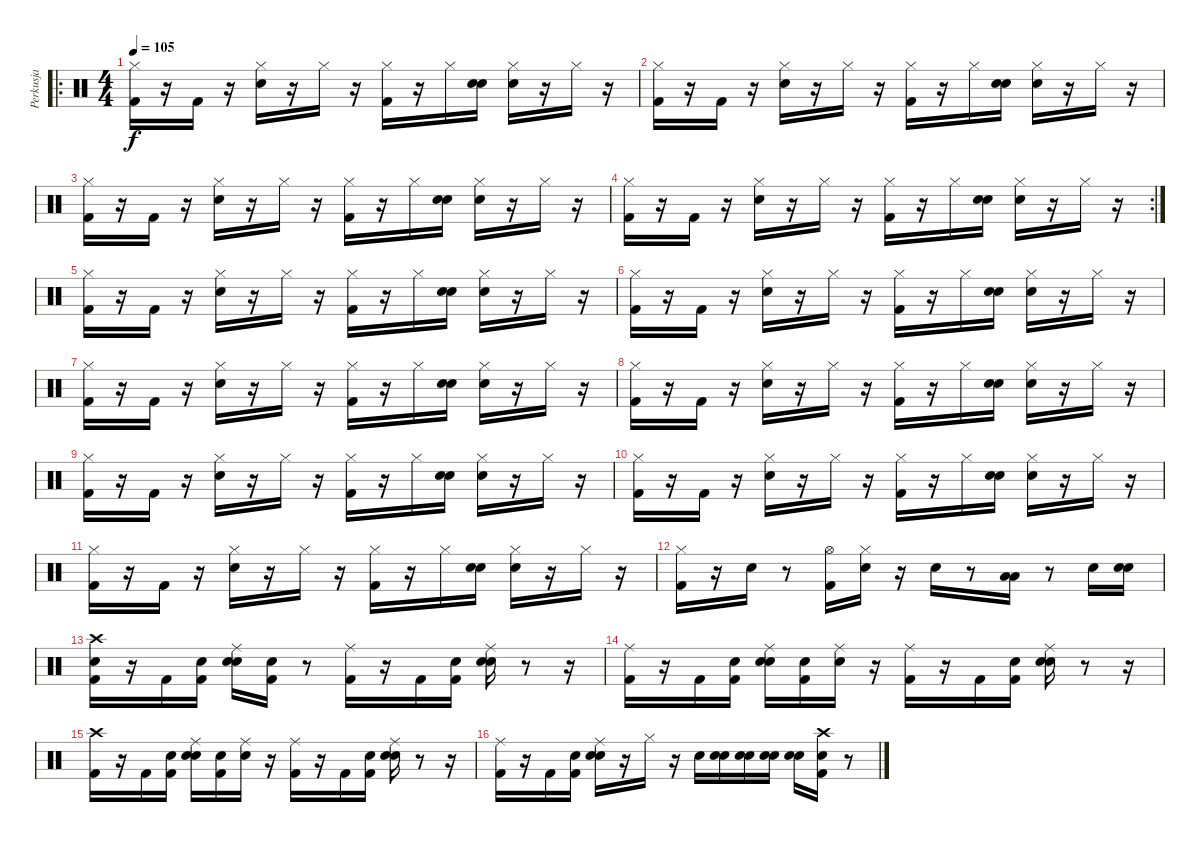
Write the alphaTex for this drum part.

\track ("Perkusja" "Perkusja") {instrument percussion}
\staff {score}
\articulation defaults
\ro
\ts (4 4)
\tempo 105
\clef neutral
\ks c
("Kick (hit) 2" "Hi-Hat (closed)").16{dy f} r.16 "Kick (hit) 2".16 r.16 ("Snare (hit) 2" "Hi-Hat (closed)").16 r.16 "Hi-Hat (closed)".16 r.16 ("Kick (hit) 2" "Hi-Hat (closed)").16 r.16 "Hi-Hat (closed)".16 ("Snare (hit)" "Snare (hit) 2").16 ("Snare (hit)" "Hi-Hat (closed)").16 r.16 "Hi-Hat (closed)".16 r.16 |
("Kick (hit) 2" "Hi-Hat (closed)").16 r.16 "Kick (hit) 2".16 r.16 ("Snare (hit) 2" "Hi-Hat (closed)").16 r.16 "Hi-Hat (closed)".16 r.16 ("Kick (hit) 2" "Hi-Hat (closed)").16 r.16 "Hi-Hat (closed)".16 ("Snare (hit)" "Snare (hit) 2").16 ("Snare (hit)" "Hi-Hat (closed)").16 r.16 "Hi-Hat (closed)".16 r.16 |
("Kick (hit) 2" "Hi-Hat (closed)").16 r.16 "Kick (hit) 2".16 r.16 ("Snare (hit) 2" "Hi-Hat (closed)").16 r.16 "Hi-Hat (closed)".16 r.16 ("Kick (hit) 2" "Hi-Hat (closed)").16 r.16 "Hi-Hat (closed)".16 ("Snare (hit)" "Snare (hit) 2").16 ("Snare (hit)" "Hi-Hat (closed)").16 r.16 "Hi-Hat (closed)".16 r.16 |
\rc 2
("Kick (hit) 2" "Hi-Hat (closed)").16 r.16 "Kick (hit) 2".16 r.16 ("Snare (hit) 2" "Hi-Hat (closed)").16 r.16 "Hi-Hat (closed)".16 r.16 ("Kick (hit) 2" "Hi-Hat (closed)").16 r.16 "Hi-Hat (closed)".16 ("Snare (hit)" "Snare (hit) 2").16 ("Snare (hit)" "Hi-Hat (closed)").16 r.16 "Hi-Hat (closed)".16 r.16 |
("Kick (hit) 2" "Hi-Hat (closed)").16 r.16 "Kick (hit) 2".16 r.16 ("Snare (hit) 2" "Hi-Hat (closed)").16 r.16 "Hi-Hat (closed)".16 r.16 ("Kick (hit) 2" "Hi-Hat (closed)").16 r.16 "Hi-Hat (closed)".16 ("Snare (hit)" "Snare (hit) 2").16 ("Snare (hit)" "Hi-Hat (closed)").16 r.16 "Hi-Hat (closed)".16 r.16 |
("Kick (hit) 2" "Hi-Hat (closed)").16 r.16 "Kick (hit) 2".16 r.16 ("Snare (hit) 2" "Hi-Hat (closed)").16 r.16 "Hi-Hat (closed)".16 r.16 ("Kick (hit) 2" "Hi-Hat (closed)").16 r.16 "Hi-Hat (closed)".16 ("Snare (hit)" "Snare (hit) 2").16 ("Snare (hit)" "Hi-Hat (closed)").16 r.16 "Hi-Hat (closed)".16 r.16 |
("Kick (hit) 2" "Hi-Hat (closed)").16 r.16 "Kick (hit) 2".16 r.16 ("Snare (hit) 2" "Hi-Hat (closed)").16 r.16 "Hi-Hat (closed)".16 r.16 ("Kick (hit) 2" "Hi-Hat (closed)").16 r.16 "Hi-Hat (closed)".16 ("Snare (hit)" "Snare (hit) 2").16 ("Snare (hit)" "Hi-Hat (closed)").16 r.16 "Hi-Hat (closed)".16 r.16 |
("Kick (hit) 2" "Hi-Hat (closed)").16 r.16 "Kick (hit) 2".16 r.16 ("Snare (hit) 2" "Hi-Hat (closed)").16 r.16 "Hi-Hat (closed)".16 r.16 ("Kick (hit) 2" "Hi-Hat (closed)").16 r.16 "Hi-Hat (closed)".16 ("Snare (hit)" "Snare (hit) 2").16 ("Snare (hit)" "Hi-Hat (closed)").16 r.16 "Hi-Hat (closed)".16 r.16 |
("Kick (hit) 2" "Hi-Hat (closed)").16 r.16 "Kick (hit) 2".16 r.16 ("Snare (hit) 2" "Hi-Hat (closed)").16 r.16 "Hi-Hat (closed)".16 r.16 ("Kick (hit) 2" "Hi-Hat (closed)").16 r.16 "Hi-Hat (closed)".16 ("Snare (hit)" "Snare (hit) 2").16 ("Snare (hit)" "Hi-Hat (closed)").16 r.16 "Hi-Hat (closed)".16 r.16 |
("Kick (hit) 2" "Hi-Hat (closed)").16 r.16 "Kick (hit) 2".16 r.16 ("Snare (hit) 2" "Hi-Hat (closed)").16 r.16 "Hi-Hat (closed)".16 r.16 ("Kick (hit) 2" "Hi-Hat (closed)").16 r.16 "Hi-Hat (closed)".16 ("Snare (hit)" "Snare (hit) 2").16 ("Snare (hit)" "Hi-Hat (closed)").16 r.16 "Hi-Hat (closed)".16 r.16 |
("Kick (hit) 2" "Hi-Hat (closed)").16 r.16 "Kick (hit) 2".16 r.16 ("Snare (hit) 2" "Hi-Hat (closed)").16 r.16 "Hi-Hat (closed)".16 r.16 ("Kick (hit) 2" "Hi-Hat (closed)").16 r.16 "Hi-Hat (closed)".16 ("Snare (hit)" "Snare (hit) 2").16 ("Snare (hit)" "Hi-Hat (closed)").16 r.16 "Hi-Hat (closed)".16 r.16 |
("Kick (hit) 2" "Hi-Hat (closed)").16 r.16 "Snare (hit) 2".16 r.8 ("Kick (hit) 2" "Hi-Hat (open)").16 ("Snare (hit)" "Hi-Hat (closed)").16 r.16 "Snare (hit) 2".16 r.8 ("Low Floor Tom (hit)" "Low Tom (hit)").16 r.8 "Snare (hit) 2".16 ("Snare (hit)" "Snare (hit) 2").16 |
("Snare (hit)" "Kick (hit) 2" "Crash high (hit)").16 r.16 "Kick (hit) 2".16 ("Snare (hit)" "Kick (hit) 2").16 ("Snare (hit)" "Snare (hit) 2" "Ride (middle)").16 ("Snare (hit)" "Kick (hit) 2").16 r.8 ("Kick (hit) 2" "Ride (middle)").16 r.16 "Kick (hit) 2".16 ("Snare (hit)" "Kick (hit) 2").16 ("Snare (hit)" "Snare (hit) 2" "Ride (middle)").16 r.8 r.16 |
("Kick (hit) 2" "Ride (middle)").16 r.16 "Kick (hit) 2".16 ("Snare (hit)" "Kick (hit) 2").16 ("Snare (hit)" "Snare (hit) 2" "Ride (middle)").16 ("Snare (hit)" "Kick (hit) 2").16 ("Snare (hit)" "Ride (middle)").16 r.16 ("Kick (hit) 2" "Ride (middle)").16 r.16 "Kick (hit) 2".16 ("Snare (hit)" "Kick (hit) 2").16 ("Snare (hit)" "Snare (hit) 2" "Ride (middle)").16 r.8 r.16 |
("Kick (hit) 2" "Crash high (hit)").16 r.16 "Kick (hit) 2".16 ("Snare (hit)" "Kick (hit) 2").16 ("Snare (hit)" "Snare (hit) 2" "Ride (middle)").16 ("Snare (hit)" "Kick (hit) 2").16 ("Snare (hit)" "Ride (middle)").16 r.16 ("Kick (hit) 2" "Ride (middle)").16 r.16 "Kick (hit) 2".16 ("Snare (hit)" "Kick (hit) 2").16 ("Snare (hit)" "Snare (hit) 2" "Ride (middle)").16 r.8 r.16 |
("Kick (hit) 2" "Ride (middle)").16 r.16 "Kick (hit) 2".16 ("Snare (hit)" "Kick (hit) 2").16 ("Snare (hit)" "Snare (hit) 2" "Ride (middle)").16 r.16 "Hi-Hat (closed)".16 r.16 "Snare (hit) 2".16 ("Snare (hit)" "Snare (hit) 2").16 ("Snare (hit)" "Snare (hit) 2").16 ("Snare (hit)" "Snare (hit) 2").16 ("Snare (hit)" "Snare (hit) 2").16 ("Snare (hit)" "Kick (hit) 2" "Crash high (hit)").16 r.8
